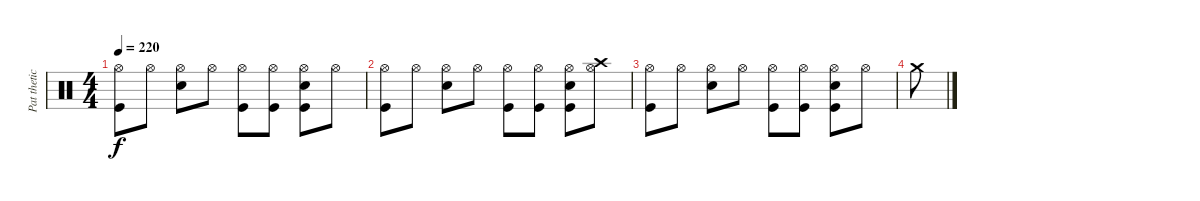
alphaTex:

\track ("Pat thetic (Drums)" "Pat thetic") {instrument percussion}
\staff {score}
\articulation defaults
\ts (4 4)
\tempo 220
\clef neutral
\ks c
("Kick (hit)" "Hi-Hat (open)").8{dy f} "Hi-Hat (open)".8 ("Electric Snare (hit)" "Hi-Hat (open)").8 "Hi-Hat (open)".8 ("Kick (hit)" "Hi-Hat (open)").8 ("Kick (hit)" "Hi-Hat (open)").8 ("Kick (hit)" "Electric Snare (hit)" "Hi-Hat (open)").8 "Hi-Hat (open)".8 |
("Kick (hit)" "Hi-Hat (open)").8 "Hi-Hat (open)".8 ("Electric Snare (hit)" "Hi-Hat (open)").8 "Hi-Hat (open)".8 ("Kick (hit)" "Hi-Hat (open)").8 ("Kick (hit)" "Hi-Hat (open)").8 ("Kick (hit)" "Electric Snare (hit)" "Hi-Hat (open)").8 ("Crash high (hit)" "Hi-Hat (open)").8 |
("Kick (hit)" "Hi-Hat (open)").8 "Hi-Hat (open)".8 ("Electric Snare (hit)" "Hi-Hat (open)").8 "Hi-Hat (open)".8 ("Kick (hit)" "Hi-Hat (open)").8 ("Kick (hit)" "Hi-Hat (open)").8 ("Kick (hit)" "Electric Snare (hit)" "Hi-Hat (open)").8 "Hi-Hat (open)".8 |
"Crash medium (hit)".8
